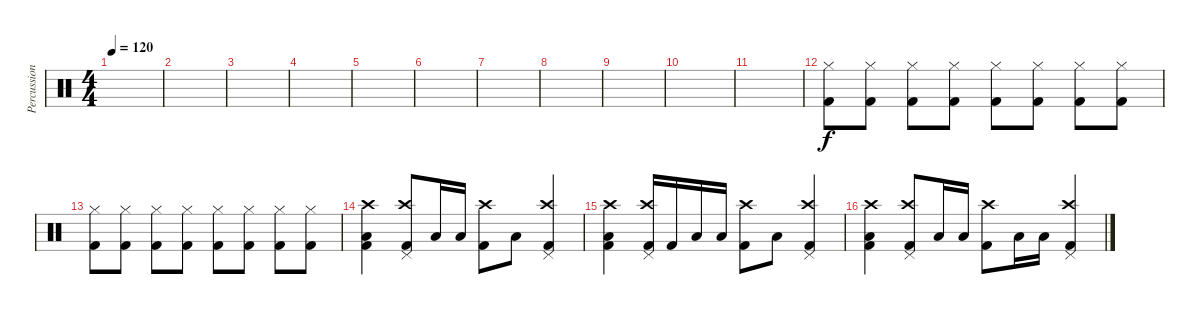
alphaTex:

\track ("Percussions" "Percussion") {instrument percussion}
\staff {score}
\articulation defaults
\ts (4 4)
\tempo 120
\clef neutral
\ks c
|
|
|
|
|
|
|
|
|
|
|
("Hi-Hat (closed)" "Kick (hit) 2").8{volume 16} ("Hi-Hat (closed)" "Kick (hit) 2").8 ("Hi-Hat (closed)" "Kick (hit) 2").8 ("Hi-Hat (closed)" "Kick (hit) 2").8 ("Hi-Hat (closed)" "Kick (hit) 2").8 ("Hi-Hat (closed)" "Kick (hit) 2").8 ("Hi-Hat (closed)" "Kick (hit) 2").8 ("Hi-Hat (closed)" "Kick (hit) 2").8 |
("Hi-Hat (closed)" "Kick (hit) 2").8 ("Hi-Hat (closed)" "Kick (hit) 2").8 ("Hi-Hat (closed)" "Kick (hit) 2").8 ("Hi-Hat (closed)" "Kick (hit) 2").8 ("Hi-Hat (closed)" "Kick (hit) 2").8 ("Hi-Hat (closed)" "Kick (hit) 2").8 ("Hi-Hat (closed)" "Kick (hit) 2").8 ("Hi-Hat (closed)" "Kick (hit) 2").8 |
("Low Floor Tom (hit)" "Crash high (hit)" "Kick (hit) 2").4 ("Pedal Hi-Hat (hit)" "Crash high (hit)" "Kick (hit) 2").8 "Low Floor Tom (hit)".16 "Low Floor Tom (hit)".16 ("Crash high (hit)" "Kick (hit) 2").8 "Low Floor Tom (hit)".8 ("Pedal Hi-Hat (hit)" "Crash high (hit)" "Kick (hit) 2").4 |
("Low Floor Tom (hit)" "Crash high (hit)" "Kick (hit) 2").4 ("Pedal Hi-Hat (hit)" "Crash high (hit)" "Kick (hit) 2").16 "Kick (hit) 2".16 "Low Floor Tom (hit)".16 "Low Floor Tom (hit)".16 ("Crash high (hit)" "Kick (hit) 2").8 "Low Floor Tom (hit)".8 ("Pedal Hi-Hat (hit)" "Crash high (hit)" "Kick (hit) 2").4 |
("Low Floor Tom (hit)" "Crash high (hit)" "Kick (hit) 2").4 ("Pedal Hi-Hat (hit)" "Crash high (hit)" "Kick (hit) 2").8 "Low Floor Tom (hit)".16 "Low Floor Tom (hit)".16 ("Crash high (hit)" "Kick (hit) 2").8 "Low Floor Tom (hit)".16 "Low Floor Tom (hit)".16 ("Pedal Hi-Hat (hit)" "Crash high (hit)" "Kick (hit) 2").4
